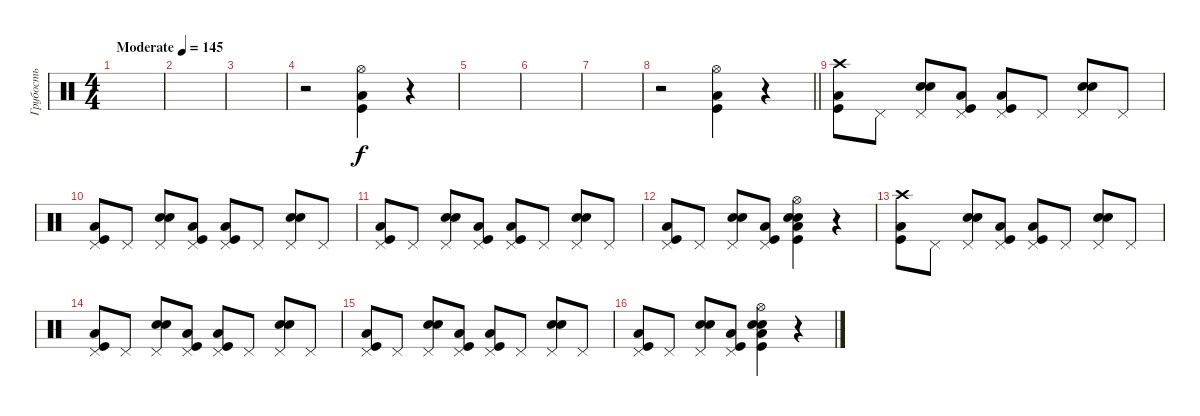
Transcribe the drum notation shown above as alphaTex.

\track ("Грубость" "Грубость") {instrument percussion}
\staff {score}
\articulation defaults
\ts (4 4)
\tempo (145 "Moderate")
\clef neutral
\ks c
|
|
|
r.2 ("Hi-Hat (open)" "Low Tom (hit)" "Kick (hit)").4 r.4 |
|
|
|
\barLineRight lightlight
r.2 ("Hi-Hat (open)" "Low Tom (hit)" "Kick (hit)").4 r.4 |
("Crash high (hit)" "Low Tom (hit)" "Kick (hit)").8 "Pedal Hi-Hat (hit)".8 ("Pedal Hi-Hat (hit)" "Electric Snare (hit)" "Snare (hit) 2").8 ("Pedal Hi-Hat (hit)" "Low Tom (hit)" "Kick (hit)").8 ("Pedal Hi-Hat (hit)" "Low Tom (hit)" "Kick (hit)").8 "Pedal Hi-Hat (hit)".8 ("Pedal Hi-Hat (hit)" "Electric Snare (hit)" "Snare (hit) 2").8 "Pedal Hi-Hat (hit)".8 |
("Pedal Hi-Hat (hit)" "Low Tom (hit)" "Kick (hit)").8 "Pedal Hi-Hat (hit)".8 ("Pedal Hi-Hat (hit)" "Electric Snare (hit)" "Snare (hit) 2").8 ("Pedal Hi-Hat (hit)" "Low Tom (hit)" "Kick (hit)").8 ("Pedal Hi-Hat (hit)" "Low Tom (hit)" "Kick (hit)").8 "Pedal Hi-Hat (hit)".8 ("Pedal Hi-Hat (hit)" "Electric Snare (hit)" "Snare (hit) 2").8 "Pedal Hi-Hat (hit)".8 |
("Pedal Hi-Hat (hit)" "Low Tom (hit)" "Kick (hit)").8 "Pedal Hi-Hat (hit)".8 ("Pedal Hi-Hat (hit)" "Electric Snare (hit)" "Snare (hit) 2").8 ("Pedal Hi-Hat (hit)" "Low Tom (hit)" "Kick (hit)").8 ("Pedal Hi-Hat (hit)" "Low Tom (hit)" "Kick (hit)").8 "Pedal Hi-Hat (hit)".8 ("Pedal Hi-Hat (hit)" "Electric Snare (hit)" "Snare (hit) 2").8 "Pedal Hi-Hat (hit)".8 |
("Pedal Hi-Hat (hit)" "Low Tom (hit)" "Kick (hit)").8 "Pedal Hi-Hat (hit)".8 ("Pedal Hi-Hat (hit)" "Electric Snare (hit)" "Snare (hit) 2").8 ("Pedal Hi-Hat (hit)" "Low Tom (hit)" "Kick (hit)").8 ("Hi-Hat (open)" "Electric Snare (hit)" "Snare (hit) 2" "Low Tom (hit)" "Kick (hit)").4 r.4 |
("Crash high (hit)" "Low Tom (hit)" "Kick (hit)").8 "Pedal Hi-Hat (hit)".8 ("Pedal Hi-Hat (hit)" "Electric Snare (hit)" "Snare (hit) 2").8 ("Pedal Hi-Hat (hit)" "Low Tom (hit)" "Kick (hit)").8 ("Pedal Hi-Hat (hit)" "Low Tom (hit)" "Kick (hit)").8 "Pedal Hi-Hat (hit)".8 ("Pedal Hi-Hat (hit)" "Electric Snare (hit)" "Snare (hit) 2").8 "Pedal Hi-Hat (hit)".8 |
("Pedal Hi-Hat (hit)" "Low Tom (hit)" "Kick (hit)").8 "Pedal Hi-Hat (hit)".8 ("Pedal Hi-Hat (hit)" "Electric Snare (hit)" "Snare (hit) 2").8 ("Pedal Hi-Hat (hit)" "Low Tom (hit)" "Kick (hit)").8 ("Pedal Hi-Hat (hit)" "Low Tom (hit)" "Kick (hit)").8 "Pedal Hi-Hat (hit)".8 ("Pedal Hi-Hat (hit)" "Electric Snare (hit)" "Snare (hit) 2").8 "Pedal Hi-Hat (hit)".8 |
("Pedal Hi-Hat (hit)" "Low Tom (hit)" "Kick (hit)").8 "Pedal Hi-Hat (hit)".8 ("Pedal Hi-Hat (hit)" "Electric Snare (hit)" "Snare (hit) 2").8 ("Pedal Hi-Hat (hit)" "Low Tom (hit)" "Kick (hit)").8 ("Pedal Hi-Hat (hit)" "Low Tom (hit)" "Kick (hit)").8 "Pedal Hi-Hat (hit)".8 ("Pedal Hi-Hat (hit)" "Electric Snare (hit)" "Snare (hit) 2").8 "Pedal Hi-Hat (hit)".8 |
("Pedal Hi-Hat (hit)" "Low Tom (hit)" "Kick (hit)").8 "Pedal Hi-Hat (hit)".8 ("Pedal Hi-Hat (hit)" "Electric Snare (hit)" "Snare (hit) 2").8 ("Pedal Hi-Hat (hit)" "Low Tom (hit)" "Kick (hit)").8 ("Hi-Hat (open)" "Electric Snare (hit)" "Snare (hit) 2" "Low Tom (hit)" "Kick (hit)").4 r.4
